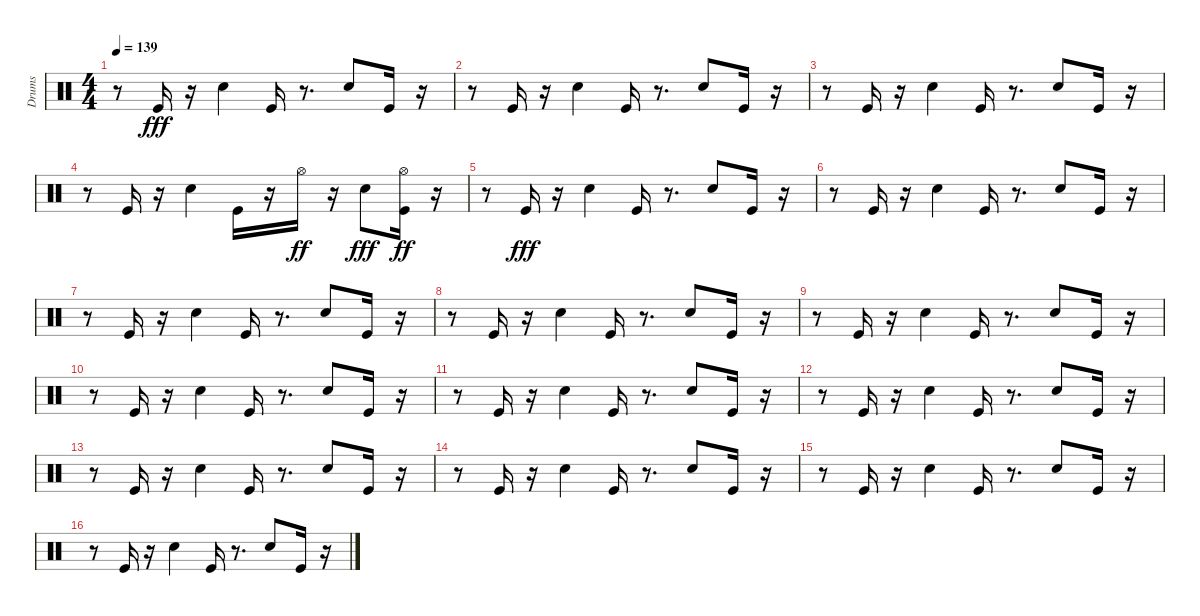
\track ("Drums" "Drums") {instrument percussion}
\staff {score}
\articulation defaults
\ts (4 4)
\tempo 139
\clef neutral
\ks c
r.8{dy ff} "Kick (hit)".16{dy fff} r.16 "Snare (hit) 2".4 "Kick (hit)".16 r.8{d} "Snare (hit) 2".8 "Kick (hit)".16 r.16 |
r.8 "Kick (hit)".16 r.16 "Snare (hit) 2".4 "Kick (hit)".16 r.8{d} "Snare (hit) 2".8 "Kick (hit)".16 r.16 |
r.8 "Kick (hit)".16 r.16 "Snare (hit) 2".4 "Kick (hit)".16 r.8{d} "Snare (hit) 2".8 "Kick (hit)".16 r.16 |
r.8 "Kick (hit)".16 r.16 "Snare (hit) 2".4 "Kick (hit)".16 r.16 "Hi-Hat (open)".16{dy ff} r.16 "Snare (hit) 2".8{dy fff} ("Kick (hit)" "Hi-Hat (open)").16{dy ff} r.16 |
r.8 "Kick (hit)".16{dy fff} r.16 "Snare (hit) 2".4 "Kick (hit)".16 r.8{d} "Snare (hit) 2".8 "Kick (hit)".16 r.16 |
r.8 "Kick (hit)".16 r.16 "Snare (hit) 2".4 "Kick (hit)".16 r.8{d} "Snare (hit) 2".8 "Kick (hit)".16 r.16 |
r.8 "Kick (hit)".16 r.16 "Snare (hit) 2".4 "Kick (hit)".16 r.8{d} "Snare (hit) 2".8 "Kick (hit)".16 r.16 |
r.8 "Kick (hit)".16 r.16 "Snare (hit) 2".4 "Kick (hit)".16 r.8{d} "Snare (hit) 2".8 "Kick (hit)".16 r.16 |
r.8 "Kick (hit)".16 r.16 "Snare (hit) 2".4 "Kick (hit)".16 r.8{d} "Snare (hit) 2".8 "Kick (hit)".16 r.16 |
r.8 "Kick (hit)".16 r.16 "Snare (hit) 2".4 "Kick (hit)".16 r.8{d} "Snare (hit) 2".8 "Kick (hit)".16 r.16 |
r.8 "Kick (hit)".16 r.16 "Snare (hit) 2".4 "Kick (hit)".16 r.8{d} "Snare (hit) 2".8 "Kick (hit)".16 r.16 |
r.8 "Kick (hit)".16 r.16 "Snare (hit) 2".4 "Kick (hit)".16 r.8{d} "Snare (hit) 2".8 "Kick (hit)".16 r.16 |
r.8 "Kick (hit)".16 r.16 "Snare (hit) 2".4 "Kick (hit)".16 r.8{d} "Snare (hit) 2".8 "Kick (hit)".16 r.16 |
r.8 "Kick (hit)".16 r.16 "Snare (hit) 2".4 "Kick (hit)".16 r.8{d} "Snare (hit) 2".8 "Kick (hit)".16 r.16 |
r.8 "Kick (hit)".16 r.16 "Snare (hit) 2".4 "Kick (hit)".16 r.8{d} "Snare (hit) 2".8 "Kick (hit)".16 r.16 |
r.8 "Kick (hit)".16 r.16 "Snare (hit) 2".4 "Kick (hit)".16 r.8{d} "Snare (hit) 2".8 "Kick (hit)".16 r.16
